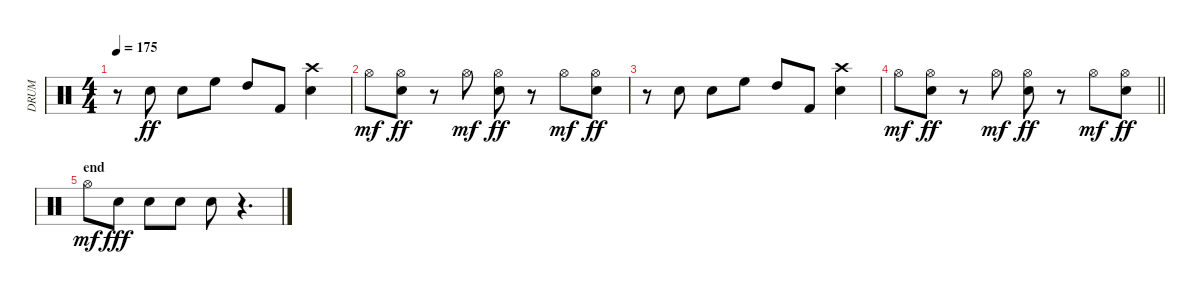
\track ("DRUM" "DRUM") {instrument percussion}
\staff {score}
\articulation defaults
\ts (4 4)
\tempo 175
\clef neutral
\ks c
r.8{dy fff} "Electric Snare (hit)".8{dy ff} "Snare (hit) 2".8 "High Floor Tom (hit)".8 "High Tom (hit)".8 "Kick (hit) 2".8 ("Crash high (hit)" "Snare (hit) 2").4 |
"Hi-Hat (open)".8{dy mf} ("Hi-Hat (open)" "Snare (hit) 2").8{dy ff} r.8 "Hi-Hat (open)".8{dy mf} ("Hi-Hat (open)" "Snare (hit) 2").8{dy ff} r.8 "Hi-Hat (open)".8{dy mf} ("Hi-Hat (open)" "Snare (hit) 2").8{dy ff} |
r.8 "Electric Snare (hit)".8 "Snare (hit) 2".8 "High Floor Tom (hit)".8 "High Tom (hit)".8 "Kick (hit) 2".8 ("Crash high (hit)" "Snare (hit) 2").4 |
\barLineRight lightlight "Hi-Hat (open)".8{dy mf}
("Hi-Hat (open)" "Snare (hit) 2").8{dy ff} r.8 "Hi-Hat (open)".8{dy mf} ("Hi-Hat (open)" "Snare (hit) 2").8{dy ff} r.8 "Hi-Hat (open)".8{dy mf} ("Hi-Hat (open)" "Snare (hit) 2").8{dy ff} |
\section ("" "end")
"Hi-Hat (open)".8{dy mf} "Electric Snare (hit)".8{dy fff} "Snare (hit) 2".8 "Electric Snare (hit)".8 "Snare (hit) 2".8 r.4{d}
